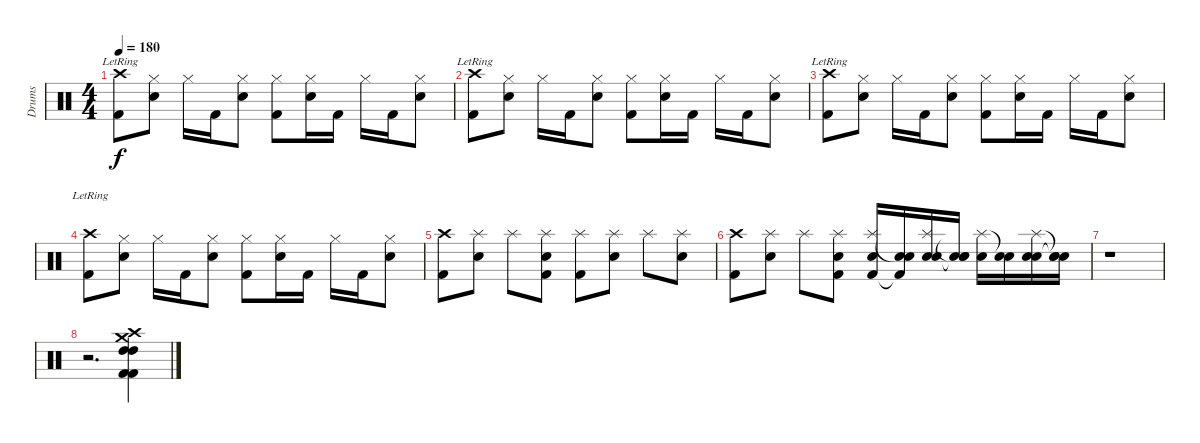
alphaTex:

\track ("Drums" "Drums") {instrument percussion}
\staff {score}
\articulation defaults
\ts (4 4)
\tempo 180
\clef neutral
\ks c
("Crash high (hit)"{lr} "Kick (hit) 2").8{dy f} ("Hi-Hat (closed)" "Snare (hit) 2").8 "Hi-Hat (closed)".16 "Kick (hit) 2".16 ("Hi-Hat (closed)" "Snare (hit) 2").8 ("Hi-Hat (closed)" "Kick (hit) 2").8 ("Hi-Hat (closed)" "Snare (hit) 2").16 "Kick (hit) 2".16 "Hi-Hat (closed)".16 "Kick (hit) 2".16 ("Hi-Hat (closed)" "Snare (hit) 2").8 |
("Crash high (hit)"{lr} "Kick (hit) 2").8 ("Hi-Hat (closed)" "Snare (hit) 2").8 "Hi-Hat (closed)".16 "Kick (hit) 2".16 ("Hi-Hat (closed)" "Snare (hit) 2").8 ("Hi-Hat (closed)" "Kick (hit) 2").8 ("Hi-Hat (closed)" "Snare (hit) 2").16 "Kick (hit) 2".16 "Hi-Hat (closed)".16 "Kick (hit) 2".16 ("Hi-Hat (closed)" "Snare (hit) 2").8 |
("Crash high (hit)"{lr} "Kick (hit) 2").8 ("Hi-Hat (closed)" "Snare (hit) 2").8 "Hi-Hat (closed)".16 "Kick (hit) 2".16 ("Hi-Hat (closed)" "Snare (hit) 2").8 ("Hi-Hat (closed)" "Kick (hit) 2").8 ("Hi-Hat (closed)" "Snare (hit) 2").16 "Kick (hit) 2".16 "Hi-Hat (closed)".16 "Kick (hit) 2".16 ("Hi-Hat (closed)" "Snare (hit) 2").8 |
("Crash high (hit)"{lr} "Kick (hit) 2").8 ("Hi-Hat (closed)" "Snare (hit) 2").8 "Hi-Hat (closed)".16 "Kick (hit) 2".16 ("Hi-Hat (closed)" "Snare (hit) 2").8 ("Hi-Hat (closed)" "Kick (hit) 2").8 ("Hi-Hat (closed)" "Snare (hit) 2").16 "Kick (hit) 2".16 "Hi-Hat (closed)".16 "Kick (hit) 2".16 ("Hi-Hat (closed)" "Snare (hit) 2").8 |
("Crash high (hit)" "Kick (hit) 2").8 ("Splash (hit)" "Snare (hit) 2").8 "Splash (hit)".8 ("Splash (hit)" "Snare (hit) 2" "Kick (hit) 2").8 ("Splash (hit)" "Kick (hit) 2").8 ("Splash (hit)" "Snare (hit) 2").8 "Splash (hit)".8 ("Splash (hit)" "Snare (hit) 2").8 |
("Crash high (hit)" "Kick (hit) 2").8 ("Splash (hit)" "Snare (hit) 2").8 "Splash (hit)".8 ("Splash (hit)" "Snare (hit) 2" "Kick (hit) 2").8 ("Splash (hit)" "Kick (hit) 2" "Electric Snare (hit)").16 ("Snare (hit)"{t} "Kick (hit) 2"{t} "Electric Snare (hit)").16 ("Splash (hit)" "Snare (hit) 2" "Electric Snare (hit)").16 ("Snare (hit)"{t} "Snare (hit)"{t} "Electric Snare (hit)").16 ("Splash (hit)" "Electric Snare (hit)").16 ("Snare (hit)"{t} "Electric Snare (hit)").16 ("Splash (hit)" "Snare (hit) 2" "Electric Snare (hit)").16 ("Snare (hit)"{t} "Snare (hit) 2"{t} "Electric Snare (hit)").16 |
r.1 |
r.2{d} ("High Tom (hit)" "Crash medium (hit)" "Crash high (hit)" "High Tom (hit)" "Kick (hit) 2" "Kick (hit) 2").4
